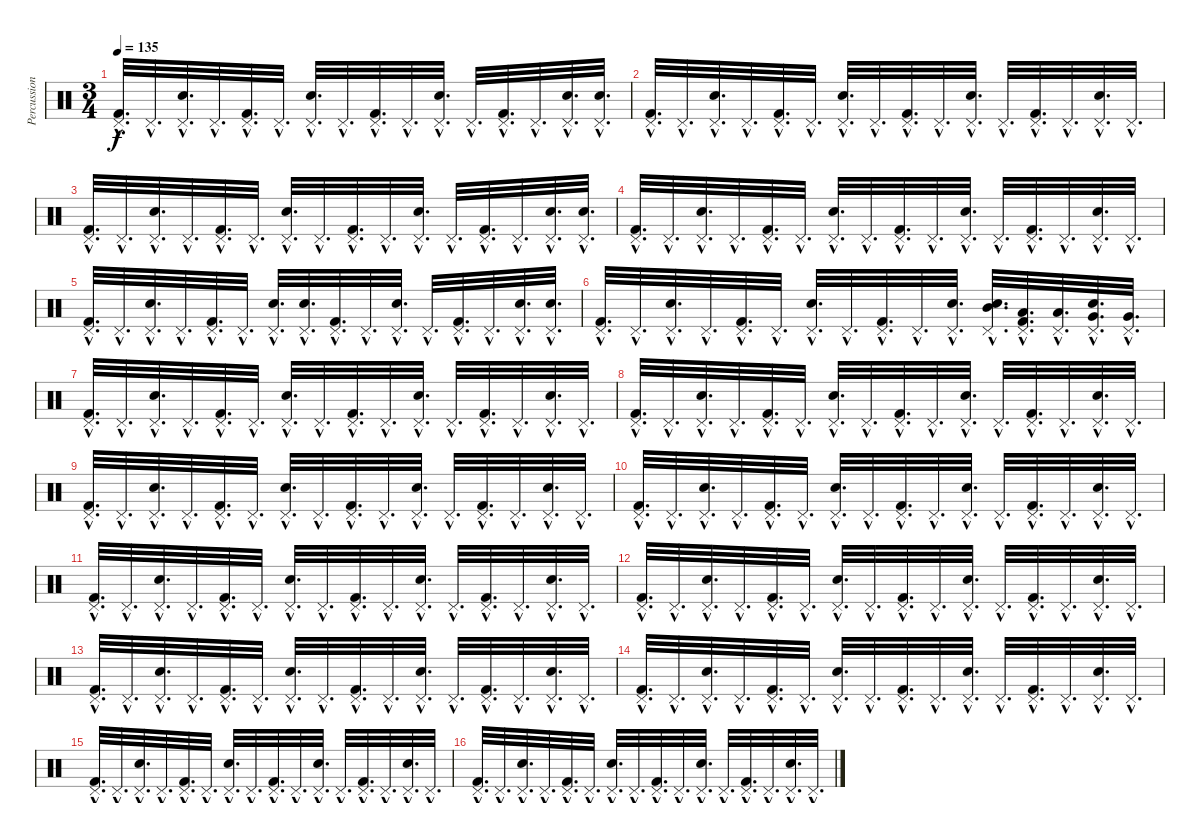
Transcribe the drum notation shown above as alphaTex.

\track ("Percussion" "Percussion") {instrument percussion}
\staff {score}
\articulation defaults
\ts (3 4)
\tempo 135
\clef neutral
\ks c
("Kick (hit) 2"{hac} "Pedal Hi-Hat (hit)"{hac}).32{d dy f} "Pedal Hi-Hat (hit)"{hac}.32{d} ("Pedal Hi-Hat (hit)"{hac} "Electric Snare (hit)"{hac}).32{d} "Pedal Hi-Hat (hit)"{hac}.32{d} ("Kick (hit) 2"{hac} "Pedal Hi-Hat (hit)"{hac}).32{d} "Pedal Hi-Hat (hit)"{hac}.32{d} ("Pedal Hi-Hat (hit)"{hac} "Electric Snare (hit)"{hac}).32{d} "Pedal Hi-Hat (hit)"{hac}.32{d} ("Kick (hit) 2"{hac} "Pedal Hi-Hat (hit)"{hac}).32{d} "Pedal Hi-Hat (hit)"{hac}.32{d} ("Pedal Hi-Hat (hit)"{hac} "Electric Snare (hit)"{hac}).32{d} "Pedal Hi-Hat (hit)"{hac}.32{d} ("Kick (hit) 2"{hac} "Pedal Hi-Hat (hit)"{hac}).32{d} "Pedal Hi-Hat (hit)"{hac}.32{d} ("Pedal Hi-Hat (hit)"{hac} "Electric Snare (hit)"{hac}).32{d} ("Pedal Hi-Hat (hit)"{hac} "Electric Snare (hit)"{hac}).32{d} |
("Kick (hit) 2"{hac} "Pedal Hi-Hat (hit)"{hac}).32{d} "Pedal Hi-Hat (hit)"{hac}.32{d} ("Pedal Hi-Hat (hit)"{hac} "Electric Snare (hit)"{hac}).32{d} "Pedal Hi-Hat (hit)"{hac}.32{d} ("Kick (hit) 2"{hac} "Pedal Hi-Hat (hit)"{hac}).32{d} "Pedal Hi-Hat (hit)"{hac}.32{d} ("Pedal Hi-Hat (hit)"{hac} "Electric Snare (hit)"{hac}).32{d} "Pedal Hi-Hat (hit)"{hac}.32{d} ("Kick (hit) 2"{hac} "Pedal Hi-Hat (hit)"{hac}).32{d} "Pedal Hi-Hat (hit)"{hac}.32{d} ("Pedal Hi-Hat (hit)"{hac} "Electric Snare (hit)"{hac}).32{d} "Pedal Hi-Hat (hit)"{hac}.32{d} ("Kick (hit) 2"{hac} "Pedal Hi-Hat (hit)"{hac}).32{d} "Pedal Hi-Hat (hit)"{hac}.32{d} ("Pedal Hi-Hat (hit)"{hac} "Electric Snare (hit)"{hac}).32{d} "Pedal Hi-Hat (hit)"{hac}.32{d} |
("Kick (hit) 2"{hac} "Pedal Hi-Hat (hit)"{hac}).32{d} "Pedal Hi-Hat (hit)"{hac}.32{d} ("Pedal Hi-Hat (hit)"{hac} "Electric Snare (hit)"{hac}).32{d} "Pedal Hi-Hat (hit)"{hac}.32{d} ("Kick (hit) 2"{hac} "Pedal Hi-Hat (hit)"{hac}).32{d} "Pedal Hi-Hat (hit)"{hac}.32{d} ("Pedal Hi-Hat (hit)"{hac} "Electric Snare (hit)"{hac}).32{d} "Pedal Hi-Hat (hit)"{hac}.32{d} ("Kick (hit) 2"{hac} "Pedal Hi-Hat (hit)"{hac}).32{d} "Pedal Hi-Hat (hit)"{hac}.32{d} ("Pedal Hi-Hat (hit)"{hac} "Electric Snare (hit)"{hac}).32{d} "Pedal Hi-Hat (hit)"{hac}.32{d} ("Kick (hit) 2"{hac} "Pedal Hi-Hat (hit)"{hac}).32{d} "Pedal Hi-Hat (hit)"{hac}.32{d} ("Pedal Hi-Hat (hit)"{hac} "Electric Snare (hit)"{hac}).32{d} ("Pedal Hi-Hat (hit)"{hac} "Electric Snare (hit)"{hac}).32{d} |
("Kick (hit) 2"{hac} "Pedal Hi-Hat (hit)"{hac}).32{d} "Pedal Hi-Hat (hit)"{hac}.32{d} ("Pedal Hi-Hat (hit)"{hac} "Electric Snare (hit)"{hac}).32{d} "Pedal Hi-Hat (hit)"{hac}.32{d} ("Kick (hit) 2"{hac} "Pedal Hi-Hat (hit)"{hac}).32{d} "Pedal Hi-Hat (hit)"{hac}.32{d} ("Pedal Hi-Hat (hit)"{hac} "Electric Snare (hit)"{hac}).32{d} "Pedal Hi-Hat (hit)"{hac}.32{d} ("Kick (hit) 2"{hac} "Pedal Hi-Hat (hit)"{hac}).32{d} "Pedal Hi-Hat (hit)"{hac}.32{d} ("Pedal Hi-Hat (hit)"{hac} "Electric Snare (hit)"{hac}).32{d} "Pedal Hi-Hat (hit)"{hac}.32{d} ("Kick (hit) 2"{hac} "Pedal Hi-Hat (hit)"{hac}).32{d} "Pedal Hi-Hat (hit)"{hac}.32{d} ("Pedal Hi-Hat (hit)"{hac} "Electric Snare (hit)"{hac}).32{d} "Pedal Hi-Hat (hit)"{hac}.32{d} |
("Kick (hit) 2"{hac} "Pedal Hi-Hat (hit)"{hac}).32{d} "Pedal Hi-Hat (hit)"{hac}.32{d} ("Pedal Hi-Hat (hit)"{hac} "Electric Snare (hit)"{hac}).32{d} "Pedal Hi-Hat (hit)"{hac}.32{d} ("Kick (hit) 2"{hac} "Pedal Hi-Hat (hit)"{hac}).32{d} "Pedal Hi-Hat (hit)"{hac}.32{d} ("Pedal Hi-Hat (hit)"{hac} "Electric Snare (hit)"{hac}).32{d} ("Pedal Hi-Hat (hit)"{hac} "Electric Snare (hit)"{hac}).32{d} ("Kick (hit) 2"{hac} "Pedal Hi-Hat (hit)"{hac}).32{d} "Pedal Hi-Hat (hit)"{hac}.32{d} ("Pedal Hi-Hat (hit)"{hac} "Electric Snare (hit)"{hac}).32{d} "Pedal Hi-Hat (hit)"{hac}.32{d} ("Kick (hit) 2"{hac} "Pedal Hi-Hat (hit)"{hac}).32{d} "Pedal Hi-Hat (hit)"{hac}.32{d} ("Pedal Hi-Hat (hit)"{hac} "Electric Snare (hit)"{hac}).32{d} ("Pedal Hi-Hat (hit)"{hac} "Electric Snare (hit)"{hac}).32{d} |
("Kick (hit) 2"{hac} "Pedal Hi-Hat (hit)"{hac}).32{d} "Pedal Hi-Hat (hit)"{hac}.32{d} ("Pedal Hi-Hat (hit)"{hac} "Electric Snare (hit)"{hac}).32{d} "Pedal Hi-Hat (hit)"{hac}.32{d} ("Kick (hit) 2"{hac} "Pedal Hi-Hat (hit)"{hac}).32{d} "Pedal Hi-Hat (hit)"{hac}.32{d} ("Pedal Hi-Hat (hit)"{hac} "Electric Snare (hit)"{hac}).32{d} "Pedal Hi-Hat (hit)"{hac}.32{d} ("Kick (hit) 2"{hac} "Pedal Hi-Hat (hit)"{hac}).32{d} "Pedal Hi-Hat (hit)"{hac}.32{d} ("Pedal Hi-Hat (hit)"{hac} "Electric Snare (hit)"{hac}).32{d} ("Pedal Hi-Hat (hit)"{hac} "Electric Snare (hit)"{hac} "Mid Tom (hit)"{hac}).32{d} ("Kick (hit) 2"{hac} "Pedal Hi-Hat (hit)"{hac} "Low Tom (hit)"{hac}).32{d} ("Pedal Hi-Hat (hit)"{hac} "Low Tom (hit)"{hac}).32{d} ("Pedal Hi-Hat (hit)"{hac} "Electric Snare (hit)"{hac} "Very Low Tom (hit)"{hac}).32{d} ("Pedal Hi-Hat (hit)"{hac} "Very Low Tom (hit)"{hac}).32{d} |
("Kick (hit) 2"{hac} "Pedal Hi-Hat (hit)"{hac}).32{d} "Pedal Hi-Hat (hit)"{hac}.32{d} ("Pedal Hi-Hat (hit)"{hac} "Electric Snare (hit)"{hac}).32{d} "Pedal Hi-Hat (hit)"{hac}.32{d} ("Kick (hit) 2"{hac} "Pedal Hi-Hat (hit)"{hac}).32{d} "Pedal Hi-Hat (hit)"{hac}.32{d} ("Pedal Hi-Hat (hit)"{hac} "Electric Snare (hit)"{hac}).32{d} "Pedal Hi-Hat (hit)"{hac}.32{d} ("Kick (hit) 2"{hac} "Pedal Hi-Hat (hit)"{hac}).32{d} "Pedal Hi-Hat (hit)"{hac}.32{d} ("Pedal Hi-Hat (hit)"{hac} "Electric Snare (hit)"{hac}).32{d} "Pedal Hi-Hat (hit)"{hac}.32{d} ("Kick (hit) 2"{hac} "Pedal Hi-Hat (hit)"{hac}).32{d} "Pedal Hi-Hat (hit)"{hac}.32{d} ("Pedal Hi-Hat (hit)"{hac} "Electric Snare (hit)"{hac}).32{d} "Pedal Hi-Hat (hit)"{hac}.32{d} |
("Kick (hit) 2"{hac} "Pedal Hi-Hat (hit)"{hac}).32{d} "Pedal Hi-Hat (hit)"{hac}.32{d} ("Pedal Hi-Hat (hit)"{hac} "Electric Snare (hit)"{hac}).32{d} "Pedal Hi-Hat (hit)"{hac}.32{d} ("Kick (hit) 2"{hac} "Pedal Hi-Hat (hit)"{hac}).32{d} "Pedal Hi-Hat (hit)"{hac}.32{d} ("Pedal Hi-Hat (hit)"{hac} "Electric Snare (hit)"{hac}).32{d} "Pedal Hi-Hat (hit)"{hac}.32{d} ("Kick (hit) 2"{hac} "Pedal Hi-Hat (hit)"{hac}).32{d} "Pedal Hi-Hat (hit)"{hac}.32{d} ("Pedal Hi-Hat (hit)"{hac} "Electric Snare (hit)"{hac}).32{d} "Pedal Hi-Hat (hit)"{hac}.32{d} ("Kick (hit) 2"{hac} "Pedal Hi-Hat (hit)"{hac}).32{d} "Pedal Hi-Hat (hit)"{hac}.32{d} ("Pedal Hi-Hat (hit)"{hac} "Electric Snare (hit)"{hac}).32{d} "Pedal Hi-Hat (hit)"{hac}.32{d} |
("Kick (hit) 2"{hac} "Pedal Hi-Hat (hit)"{hac}).32{d} "Pedal Hi-Hat (hit)"{hac}.32{d} ("Pedal Hi-Hat (hit)"{hac} "Electric Snare (hit)"{hac}).32{d} "Pedal Hi-Hat (hit)"{hac}.32{d} ("Kick (hit) 2"{hac} "Pedal Hi-Hat (hit)"{hac}).32{d} "Pedal Hi-Hat (hit)"{hac}.32{d} ("Pedal Hi-Hat (hit)"{hac} "Electric Snare (hit)"{hac}).32{d} "Pedal Hi-Hat (hit)"{hac}.32{d} ("Kick (hit) 2"{hac} "Pedal Hi-Hat (hit)"{hac}).32{d} "Pedal Hi-Hat (hit)"{hac}.32{d} ("Pedal Hi-Hat (hit)"{hac} "Electric Snare (hit)"{hac}).32{d} "Pedal Hi-Hat (hit)"{hac}.32{d} ("Kick (hit) 2"{hac} "Pedal Hi-Hat (hit)"{hac}).32{d} "Pedal Hi-Hat (hit)"{hac}.32{d} ("Pedal Hi-Hat (hit)"{hac} "Electric Snare (hit)"{hac}).32{d} "Pedal Hi-Hat (hit)"{hac}.32{d} |
("Kick (hit) 2"{hac} "Pedal Hi-Hat (hit)"{hac}).32{d} "Pedal Hi-Hat (hit)"{hac}.32{d} ("Pedal Hi-Hat (hit)"{hac} "Electric Snare (hit)"{hac}).32{d} "Pedal Hi-Hat (hit)"{hac}.32{d} ("Kick (hit) 2"{hac} "Pedal Hi-Hat (hit)"{hac}).32{d} "Pedal Hi-Hat (hit)"{hac}.32{d} ("Pedal Hi-Hat (hit)"{hac} "Electric Snare (hit)"{hac}).32{d} "Pedal Hi-Hat (hit)"{hac}.32{d} ("Kick (hit) 2"{hac} "Pedal Hi-Hat (hit)"{hac}).32{d} "Pedal Hi-Hat (hit)"{hac}.32{d} ("Pedal Hi-Hat (hit)"{hac} "Electric Snare (hit)"{hac}).32{d} "Pedal Hi-Hat (hit)"{hac}.32{d} ("Kick (hit) 2"{hac} "Pedal Hi-Hat (hit)"{hac}).32{d} "Pedal Hi-Hat (hit)"{hac}.32{d} ("Pedal Hi-Hat (hit)"{hac} "Electric Snare (hit)"{hac}).32{d} "Pedal Hi-Hat (hit)"{hac}.32{d} |
("Kick (hit) 2"{hac} "Pedal Hi-Hat (hit)"{hac}).32{d} "Pedal Hi-Hat (hit)"{hac}.32{d} ("Pedal Hi-Hat (hit)"{hac} "Electric Snare (hit)"{hac}).32{d} "Pedal Hi-Hat (hit)"{hac}.32{d} ("Kick (hit) 2"{hac} "Pedal Hi-Hat (hit)"{hac}).32{d} "Pedal Hi-Hat (hit)"{hac}.32{d} ("Pedal Hi-Hat (hit)"{hac} "Electric Snare (hit)"{hac}).32{d} "Pedal Hi-Hat (hit)"{hac}.32{d} ("Kick (hit) 2"{hac} "Pedal Hi-Hat (hit)"{hac}).32{d} "Pedal Hi-Hat (hit)"{hac}.32{d} ("Pedal Hi-Hat (hit)"{hac} "Electric Snare (hit)"{hac}).32{d} "Pedal Hi-Hat (hit)"{hac}.32{d} ("Kick (hit) 2"{hac} "Pedal Hi-Hat (hit)"{hac}).32{d} "Pedal Hi-Hat (hit)"{hac}.32{d} ("Pedal Hi-Hat (hit)"{hac} "Electric Snare (hit)"{hac}).32{d} "Pedal Hi-Hat (hit)"{hac}.32{d} |
("Kick (hit) 2"{hac} "Pedal Hi-Hat (hit)"{hac}).32{d} "Pedal Hi-Hat (hit)"{hac}.32{d} ("Pedal Hi-Hat (hit)"{hac} "Electric Snare (hit)"{hac}).32{d} "Pedal Hi-Hat (hit)"{hac}.32{d} ("Kick (hit) 2"{hac} "Pedal Hi-Hat (hit)"{hac}).32{d} "Pedal Hi-Hat (hit)"{hac}.32{d} ("Pedal Hi-Hat (hit)"{hac} "Electric Snare (hit)"{hac}).32{d} "Pedal Hi-Hat (hit)"{hac}.32{d} ("Kick (hit) 2"{hac} "Pedal Hi-Hat (hit)"{hac}).32{d} "Pedal Hi-Hat (hit)"{hac}.32{d} ("Pedal Hi-Hat (hit)"{hac} "Electric Snare (hit)"{hac}).32{d} "Pedal Hi-Hat (hit)"{hac}.32{d} ("Kick (hit) 2"{hac} "Pedal Hi-Hat (hit)"{hac}).32{d} "Pedal Hi-Hat (hit)"{hac}.32{d} ("Pedal Hi-Hat (hit)"{hac} "Electric Snare (hit)"{hac}).32{d} "Pedal Hi-Hat (hit)"{hac}.32{d} |
("Kick (hit) 2"{hac} "Pedal Hi-Hat (hit)"{hac}).32{d} "Pedal Hi-Hat (hit)"{hac}.32{d} ("Pedal Hi-Hat (hit)"{hac} "Electric Snare (hit)"{hac}).32{d} "Pedal Hi-Hat (hit)"{hac}.32{d} ("Kick (hit) 2"{hac} "Pedal Hi-Hat (hit)"{hac}).32{d} "Pedal Hi-Hat (hit)"{hac}.32{d} ("Pedal Hi-Hat (hit)"{hac} "Electric Snare (hit)"{hac}).32{d} "Pedal Hi-Hat (hit)"{hac}.32{d} ("Kick (hit) 2"{hac} "Pedal Hi-Hat (hit)"{hac}).32{d} "Pedal Hi-Hat (hit)"{hac}.32{d} ("Pedal Hi-Hat (hit)"{hac} "Electric Snare (hit)"{hac}).32{d} "Pedal Hi-Hat (hit)"{hac}.32{d} ("Kick (hit) 2"{hac} "Pedal Hi-Hat (hit)"{hac}).32{d} "Pedal Hi-Hat (hit)"{hac}.32{d} ("Pedal Hi-Hat (hit)"{hac} "Electric Snare (hit)"{hac}).32{d} "Pedal Hi-Hat (hit)"{hac}.32{d} |
("Kick (hit) 2"{hac} "Pedal Hi-Hat (hit)"{hac}).32{d} "Pedal Hi-Hat (hit)"{hac}.32{d} ("Pedal Hi-Hat (hit)"{hac} "Electric Snare (hit)"{hac}).32{d} "Pedal Hi-Hat (hit)"{hac}.32{d} ("Kick (hit) 2"{hac} "Pedal Hi-Hat (hit)"{hac}).32{d} "Pedal Hi-Hat (hit)"{hac}.32{d} ("Pedal Hi-Hat (hit)"{hac} "Electric Snare (hit)"{hac}).32{d} "Pedal Hi-Hat (hit)"{hac}.32{d} ("Kick (hit) 2"{hac} "Pedal Hi-Hat (hit)"{hac}).32{d} "Pedal Hi-Hat (hit)"{hac}.32{d} ("Pedal Hi-Hat (hit)"{hac} "Electric Snare (hit)"{hac}).32{d} "Pedal Hi-Hat (hit)"{hac}.32{d} ("Kick (hit) 2"{hac} "Pedal Hi-Hat (hit)"{hac}).32{d} "Pedal Hi-Hat (hit)"{hac}.32{d} ("Pedal Hi-Hat (hit)"{hac} "Electric Snare (hit)"{hac}).32{d} "Pedal Hi-Hat (hit)"{hac}.32{d} |
("Kick (hit) 2"{hac} "Pedal Hi-Hat (hit)"{hac}).32{d} "Pedal Hi-Hat (hit)"{hac}.32{d} ("Pedal Hi-Hat (hit)"{hac} "Electric Snare (hit)"{hac}).32{d} "Pedal Hi-Hat (hit)"{hac}.32{d} ("Kick (hit) 2"{hac} "Pedal Hi-Hat (hit)"{hac}).32{d} "Pedal Hi-Hat (hit)"{hac}.32{d} ("Pedal Hi-Hat (hit)"{hac} "Electric Snare (hit)"{hac}).32{d} "Pedal Hi-Hat (hit)"{hac}.32{d} ("Kick (hit) 2"{hac} "Pedal Hi-Hat (hit)"{hac}).32{d} "Pedal Hi-Hat (hit)"{hac}.32{d} ("Pedal Hi-Hat (hit)"{hac} "Electric Snare (hit)"{hac}).32{d} "Pedal Hi-Hat (hit)"{hac}.32{d} ("Kick (hit) 2"{hac} "Pedal Hi-Hat (hit)"{hac}).32{d} "Pedal Hi-Hat (hit)"{hac}.32{d} ("Pedal Hi-Hat (hit)"{hac} "Electric Snare (hit)"{hac}).32{d} "Pedal Hi-Hat (hit)"{hac}.32{d} |
("Kick (hit) 2"{hac} "Pedal Hi-Hat (hit)"{hac}).32{d} "Pedal Hi-Hat (hit)"{hac}.32{d} ("Pedal Hi-Hat (hit)"{hac} "Electric Snare (hit)"{hac}).32{d} "Pedal Hi-Hat (hit)"{hac}.32{d} ("Kick (hit) 2"{hac} "Pedal Hi-Hat (hit)"{hac}).32{d} "Pedal Hi-Hat (hit)"{hac}.32{d} ("Pedal Hi-Hat (hit)"{hac} "Electric Snare (hit)"{hac}).32{d} "Pedal Hi-Hat (hit)"{hac}.32{d} ("Kick (hit) 2"{hac} "Pedal Hi-Hat (hit)"{hac}).32{d} "Pedal Hi-Hat (hit)"{hac}.32{d} ("Pedal Hi-Hat (hit)"{hac} "Electric Snare (hit)"{hac}).32{d} "Pedal Hi-Hat (hit)"{hac}.32{d} ("Kick (hit) 2"{hac} "Pedal Hi-Hat (hit)"{hac}).32{d} "Pedal Hi-Hat (hit)"{hac}.32{d} ("Pedal Hi-Hat (hit)"{hac} "Electric Snare (hit)"{hac}).32{d} "Pedal Hi-Hat (hit)"{hac}.32{d}
